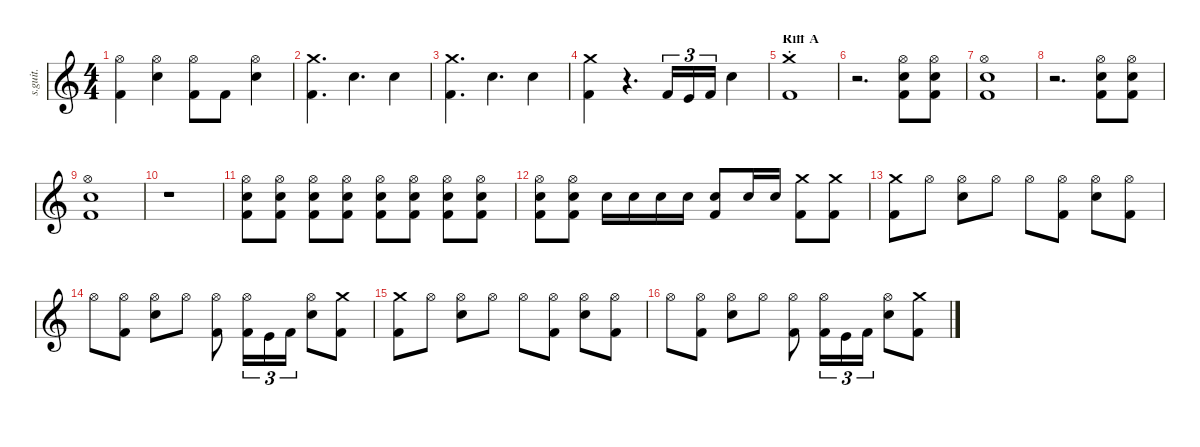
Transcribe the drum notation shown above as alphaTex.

\defaultSystemsLayout 4
\hideDynamics
\bracketExtendMode nobrackets
\track ("Lars Ulrich - Drums" "s.guit.") {instrument percussion}
\staff {score}
\articulation defaults
\ts (4 4)
\tempo (208 hide)
\clef g2
\ks c
("Hi-Hat (open)" "Kick (hit) 2").4{lyrics (0 "") lyrics (1 "") lyrics (2 "") lyrics (3 "") lyrics (4 "") dy f} ("Hi-Hat (open)" "Snare (hit) 2").4{lyrics (0 "") lyrics (1 "") lyrics (2 "") lyrics (3 "") lyrics (4 "")} ("Hi-Hat (open)" "Kick (hit) 2").8{lyrics (0 "") lyrics (1 "") lyrics (2 "") lyrics (3 "") lyrics (4 "")} "Kick (hit) 2".8{lyrics (0 "") lyrics (1 "") lyrics (2 "") lyrics (3 "") lyrics (4 "") dy fff} ("Hi-Hat (open)" "Snare (hit) 2").4{lyrics (0 "") lyrics (1 "") lyrics (2 "") lyrics (3 "") lyrics (4 "") dy f} |
("Crash medium (hit)" "Kick (hit) 2").4{d lyrics (0 "") lyrics (1 "") lyrics (2 "") lyrics (3 "") lyrics (4 "")} "Snare (hit) 2".4{d lyrics (0 "") lyrics (1 "") lyrics (2 "") lyrics (3 "") lyrics (4 "") dy ff} "Snare (hit) 2".4{lyrics (0 "") lyrics (1 "") lyrics (2 "") lyrics (3 "") lyrics (4 "")} |
("Crash medium (hit)" "Kick (hit) 2").4{d lyrics (0 "") lyrics (1 "") lyrics (2 "") lyrics (3 "") lyrics (4 "") dy f} "Snare (hit) 2".4{d lyrics (0 "") lyrics (1 "") lyrics (2 "") lyrics (3 "") lyrics (4 "") dy ff} "Snare (hit) 2".4{lyrics (0 "") lyrics (1 "") lyrics (2 "") lyrics (3 "") lyrics (4 "")} |
\tempo (140 hide)
("Crash medium (hit)" "Kick (hit) 2").4{lyrics (0 "") lyrics (1 "") lyrics (2 "") lyrics (3 "") lyrics (4 "") dy f} r.4{d} "Kick (hit) 2".16{tu (3 2) lyrics (0 "") lyrics (1 "") lyrics (2 "") lyrics (3 "") lyrics (4 "") dy ff} "Kick (hit)".16{tu (3 2) lyrics (0 "") lyrics (1 "") lyrics (2 "") lyrics (3 "") lyrics (4 "") dy f} "Kick (hit) 2".16{tu (3 2) lyrics (0 "") lyrics (1 "") lyrics (2 "") lyrics (3 "") lyrics (4 "")} "Snare (hit) 2".4{lyrics (0 "") lyrics (1 "") lyrics (2 "") lyrics (3 "") lyrics (4 "") dy fff} |
\section ("" "Riff A")
("Crash medium (choke)" "Kick (hit) 2").1{lyrics (0 "") lyrics (1 "") lyrics (2 "") lyrics (3 "") lyrics (4 "") dy f} |
r.2{d} ("Hi-Hat (open)" "Snare (hit) 2" "Kick (hit) 2").8{lyrics (0 "") lyrics (1 "") lyrics (2 "") lyrics (3 "") lyrics (4 "")} ("Hi-Hat (open)" "Snare (hit) 2" "Kick (hit) 2").8{lyrics (0 "") lyrics (1 "") lyrics (2 "") lyrics (3 "") lyrics (4 "")} |
("Hi-Hat (open)" "Snare (hit) 2" "Kick (hit) 2").1{lyrics (0 "") lyrics (1 "") lyrics (2 "") lyrics (3 "") lyrics (4 "")} |
r.2{d} ("Hi-Hat (open)" "Snare (hit) 2" "Kick (hit) 2").8{lyrics (0 "") lyrics (1 "") lyrics (2 "") lyrics (3 "") lyrics (4 "")} ("Hi-Hat (open)" "Snare (hit) 2" "Kick (hit) 2").8{lyrics (0 "") lyrics (1 "") lyrics (2 "") lyrics (3 "") lyrics (4 "")} |
("Hi-Hat (open)" "Snare (hit) 2" "Kick (hit) 2").1{lyrics (0 "") lyrics (1 "") lyrics (2 "") lyrics (3 "") lyrics (4 "")} |
r.1 |
("Hi-Hat (open)" "Snare (hit) 2" "Kick (hit) 2").8{lyrics (0 "") lyrics (1 "") lyrics (2 "") lyrics (3 "") lyrics (4 "")} ("Hi-Hat (open)" "Snare (hit) 2" "Kick (hit) 2").8{lyrics (0 "") lyrics (1 "") lyrics (2 "") lyrics (3 "") lyrics (4 "")} ("Hi-Hat (open)" "Snare (hit) 2" "Kick (hit) 2").8{lyrics (0 "") lyrics (1 "") lyrics (2 "") lyrics (3 "") lyrics (4 "")} ("Hi-Hat (open)" "Snare (hit) 2" "Kick (hit) 2").8{lyrics (0 "") lyrics (1 "") lyrics (2 "") lyrics (3 "") lyrics (4 "")} ("Hi-Hat (open)" "Snare (hit) 2" "Kick (hit) 2").8{lyrics (0 "") lyrics (1 "") lyrics (2 "") lyrics (3 "") lyrics (4 "")} ("Hi-Hat (open)" "Snare (hit) 2" "Kick (hit) 2").8{lyrics (0 "") lyrics (1 "") lyrics (2 "") lyrics (3 "") lyrics (4 "")} ("Hi-Hat (open)" "Snare (hit) 2" "Kick (hit) 2").8{lyrics (0 "") lyrics (1 "") lyrics (2 "") lyrics (3 "") lyrics (4 "")} ("Hi-Hat (open)" "Snare (hit) 2" "Kick (hit) 2").8{lyrics (0 "") lyrics (1 "") lyrics (2 "") lyrics (3 "") lyrics (4 "")} |
("Hi-Hat (open)" "Snare (hit) 2" "Kick (hit) 2").8{lyrics (0 "") lyrics (1 "") lyrics (2 "") lyrics (3 "") lyrics (4 "")} ("Hi-Hat (open)" "Snare (hit) 2" "Kick (hit) 2").8{lyrics (0 "") lyrics (1 "") lyrics (2 "") lyrics (3 "") lyrics (4 "")} "Snare (hit) 2".16{lyrics (0 "") lyrics (1 "") lyrics (2 "") lyrics (3 "") lyrics (4 "") dy ff} "Snare (hit) 2".16{lyrics (0 "") lyrics (1 "") lyrics (2 "") lyrics (3 "") lyrics (4 "")} "Snare (hit) 2".16{lyrics (0 "") lyrics (1 "") lyrics (2 "") lyrics (3 "") lyrics (4 "")} "Snare (hit) 2".16{lyrics (0 "") lyrics (1 "") lyrics (2 "") lyrics (3 "") lyrics (4 "")} ("Snare (hit) 2" "Kick (hit) 2").8{lyrics (0 "") lyrics (1 "") lyrics (2 "") lyrics (3 "") lyrics (4 "")} "Snare (hit) 2".16{lyrics (0 "") lyrics (1 "") lyrics (2 "") lyrics (3 "") lyrics (4 "")} "Snare (hit) 2".16{lyrics (0 "") lyrics (1 "") lyrics (2 "") lyrics (3 "") lyrics (4 "")} ("Crash medium (hit)" "Kick (hit) 2").8{lyrics (0 "") lyrics (1 "") lyrics (2 "") lyrics (3 "") lyrics (4 "") dy f} ("Crash medium (hit)" "Kick (hit) 2").8{lyrics (0 "") lyrics (1 "") lyrics (2 "") lyrics (3 "") lyrics (4 "")} |
("Crash medium (hit)" "Kick (hit) 2").8{lyrics (0 "") lyrics (1 "") lyrics (2 "") lyrics (3 "") lyrics (4 "")} "Hi-Hat (open)".8{lyrics (0 "") lyrics (1 "") lyrics (2 "") lyrics (3 "") lyrics (4 "")} ("Hi-Hat (open)" "Snare (hit) 2").8{lyrics (0 "") lyrics (1 "") lyrics (2 "") lyrics (3 "") lyrics (4 "")} "Hi-Hat (open)".8{lyrics (0 "") lyrics (1 "") lyrics (2 "") lyrics (3 "") lyrics (4 "")} "Hi-Hat (open)".8{lyrics (0 "") lyrics (1 "") lyrics (2 "") lyrics (3 "") lyrics (4 "")} ("Hi-Hat (open)" "Kick (hit) 2").8{lyrics (0 "") lyrics (1 "") lyrics (2 "") lyrics (3 "") lyrics (4 "")} ("Hi-Hat (open)" "Snare (hit) 2").8{lyrics (0 "") lyrics (1 "") lyrics (2 "") lyrics (3 "") lyrics (4 "")} ("Hi-Hat (open)" "Kick (hit) 2").8{lyrics (0 "") lyrics (1 "") lyrics (2 "") lyrics (3 "") lyrics (4 "")} |
"Hi-Hat (open)".8{lyrics (0 "") lyrics (1 "") lyrics (2 "") lyrics (3 "") lyrics (4 "")} ("Hi-Hat (open)" "Kick (hit) 2").8{lyrics (0 "") lyrics (1 "") lyrics (2 "") lyrics (3 "") lyrics (4 "")} ("Hi-Hat (open)" "Snare (hit) 2").8{lyrics (0 "") lyrics (1 "") lyrics (2 "") lyrics (3 "") lyrics (4 "")} "Hi-Hat (open)".8{lyrics (0 "") lyrics (1 "") lyrics (2 "") lyrics (3 "") lyrics (4 "")} ("Hi-Hat (open)" "Kick (hit) 2").8{lyrics (0 "") lyrics (1 "") lyrics (2 "") lyrics (3 "") lyrics (4 "")} ("Hi-Hat (open)" "Kick (hit) 2").16{tu (3 2) lyrics (0 "") lyrics (1 "") lyrics (2 "") lyrics (3 "") lyrics (4 "")} "Kick (hit)".16{tu (3 2) lyrics (0 "") lyrics (1 "") lyrics (2 "") lyrics (3 "") lyrics (4 "")} "Kick (hit) 2".16{tu (3 2) lyrics (0 "") lyrics (1 "") lyrics (2 "") lyrics (3 "") lyrics (4 "")} ("Hi-Hat (open)" "Snare (hit) 2").8{lyrics (0 "") lyrics (1 "") lyrics (2 "") lyrics (3 "") lyrics (4 "")} ("Crash medium (hit)" "Kick (hit) 2").8{lyrics (0 "") lyrics (1 "") lyrics (2 "") lyrics (3 "") lyrics (4 "")} |
("Crash medium (hit)" "Kick (hit) 2").8{lyrics (0 "") lyrics (1 "") lyrics (2 "") lyrics (3 "") lyrics (4 "")} "Hi-Hat (open)".8{lyrics (0 "") lyrics (1 "") lyrics (2 "") lyrics (3 "") lyrics (4 "")} ("Hi-Hat (open)" "Snare (hit) 2").8{lyrics (0 "") lyrics (1 "") lyrics (2 "") lyrics (3 "") lyrics (4 "")} "Hi-Hat (open)".8{lyrics (0 "") lyrics (1 "") lyrics (2 "") lyrics (3 "") lyrics (4 "")} "Hi-Hat (open)".8{lyrics (0 "") lyrics (1 "") lyrics (2 "") lyrics (3 "") lyrics (4 "")} ("Hi-Hat (open)" "Kick (hit) 2").8{lyrics (0 "") lyrics (1 "") lyrics (2 "") lyrics (3 "") lyrics (4 "")} ("Hi-Hat (open)" "Snare (hit) 2").8{lyrics (0 "") lyrics (1 "") lyrics (2 "") lyrics (3 "") lyrics (4 "")} ("Hi-Hat (open)" "Kick (hit) 2").8{lyrics (0 "") lyrics (1 "") lyrics (2 "") lyrics (3 "") lyrics (4 "")} |
"Hi-Hat (open)".8{lyrics (0 "") lyrics (1 "") lyrics (2 "") lyrics (3 "") lyrics (4 "")} ("Hi-Hat (open)" "Kick (hit) 2").8{lyrics (0 "") lyrics (1 "") lyrics (2 "") lyrics (3 "") lyrics (4 "")} ("Hi-Hat (open)" "Snare (hit) 2").8{lyrics (0 "") lyrics (1 "") lyrics (2 "") lyrics (3 "") lyrics (4 "")} "Hi-Hat (open)".8{lyrics (0 "") lyrics (1 "") lyrics (2 "") lyrics (3 "") lyrics (4 "")} ("Hi-Hat (open)" "Kick (hit) 2").8{lyrics (0 "") lyrics (1 "") lyrics (2 "") lyrics (3 "") lyrics (4 "")} ("Hi-Hat (open)" "Kick (hit) 2").16{tu (3 2) lyrics (0 "") lyrics (1 "") lyrics (2 "") lyrics (3 "") lyrics (4 "")} "Kick (hit)".16{tu (3 2) lyrics (0 "") lyrics (1 "") lyrics (2 "") lyrics (3 "") lyrics (4 "")} "Kick (hit) 2".16{tu (3 2) lyrics (0 "") lyrics (1 "") lyrics (2 "") lyrics (3 "") lyrics (4 "")} ("Hi-Hat (open)" "Snare (hit) 2").8{lyrics (0 "") lyrics (1 "") lyrics (2 "") lyrics (3 "") lyrics (4 "")} ("Crash medium (hit)" "Kick (hit) 2").8{lyrics (0 "") lyrics (1 "") lyrics (2 "") lyrics (3 "") lyrics (4 "")}
